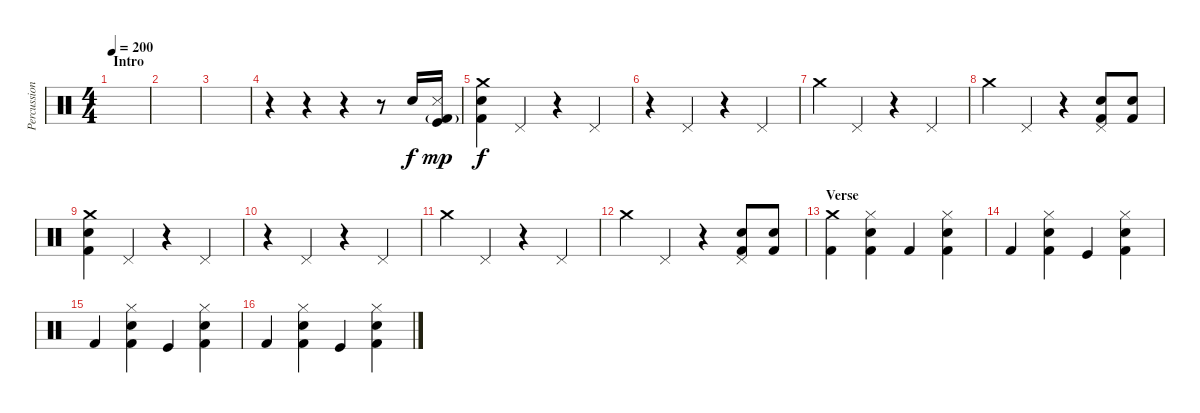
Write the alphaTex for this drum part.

\track ("Percussion" "Percussion") {instrument percussion}
\staff {score}
\articulation defaults
\ts (4 4)
\section ("" "Intro")
\tempo 200
\clef neutral
\ks c
|
|
|
r.4 r.4 r.4 r.8 "Snare (hit) 2".16 ("Snare (side stick) 3" "Kick (hit)" "Kick (hit) 2"{g}).16{dy mp} |
\section ("" "")
("Crash medium (hit)" "Kick (hit) 2" "Snare (hit) 2").4{dy f} "Pedal Hi-Hat (hit)".4 r.4 "Pedal Hi-Hat (hit)".4 |
r.4 "Pedal Hi-Hat (hit)".4 r.4 "Pedal Hi-Hat (hit)".4 |
"Crash medium (hit)".4 "Pedal Hi-Hat (hit)".4 r.4 "Pedal Hi-Hat (hit)".4 |
"Crash medium (hit)".4 "Pedal Hi-Hat (hit)".4 r.4 ("Pedal Hi-Hat (hit)" "Kick (hit) 2" "Snare (hit) 2").8 ("Kick (hit) 2" "Snare (hit) 2").8 |
("Crash medium (hit)" "Kick (hit) 2" "Snare (hit) 2").4 "Pedal Hi-Hat (hit)".4 r.4 "Pedal Hi-Hat (hit)".4 |
r.4 "Pedal Hi-Hat (hit)".4 r.4 "Pedal Hi-Hat (hit)".4 |
"Crash medium (hit)".4 "Pedal Hi-Hat (hit)".4 r.4 "Pedal Hi-Hat (hit)".4 |
"Crash medium (hit)".4 "Pedal Hi-Hat (hit)".4 r.4 ("Pedal Hi-Hat (hit)" "Kick (hit) 2" "Snare (hit) 2").8 ("Kick (hit) 2" "Snare (hit) 2").8 |
\section ("" "Verse")
("Crash medium (hit)" "Kick (hit) 2").4 ("Hi-Hat (closed)" "Snare (hit) 2" "Kick (hit) 2").4 "Kick (hit) 2".4 ("Hi-Hat (closed)" "Snare (hit) 2" "Kick (hit) 2").4 |
"Kick (hit) 2".4 ("Hi-Hat (closed)" "Snare (hit) 2" "Kick (hit) 2").4 "Kick (hit)".4 ("Hi-Hat (closed)" "Snare (hit) 2" "Kick (hit) 2").4 |
"Kick (hit) 2".4 ("Hi-Hat (closed)" "Snare (hit) 2" "Kick (hit) 2").4 "Kick (hit)".4 ("Hi-Hat (closed)" "Snare (hit) 2" "Kick (hit) 2").4 |
"Kick (hit) 2".4 ("Hi-Hat (closed)" "Snare (hit) 2" "Kick (hit) 2").4 "Kick (hit)".4 ("Hi-Hat (closed)" "Snare (hit) 2" "Kick (hit) 2").4
